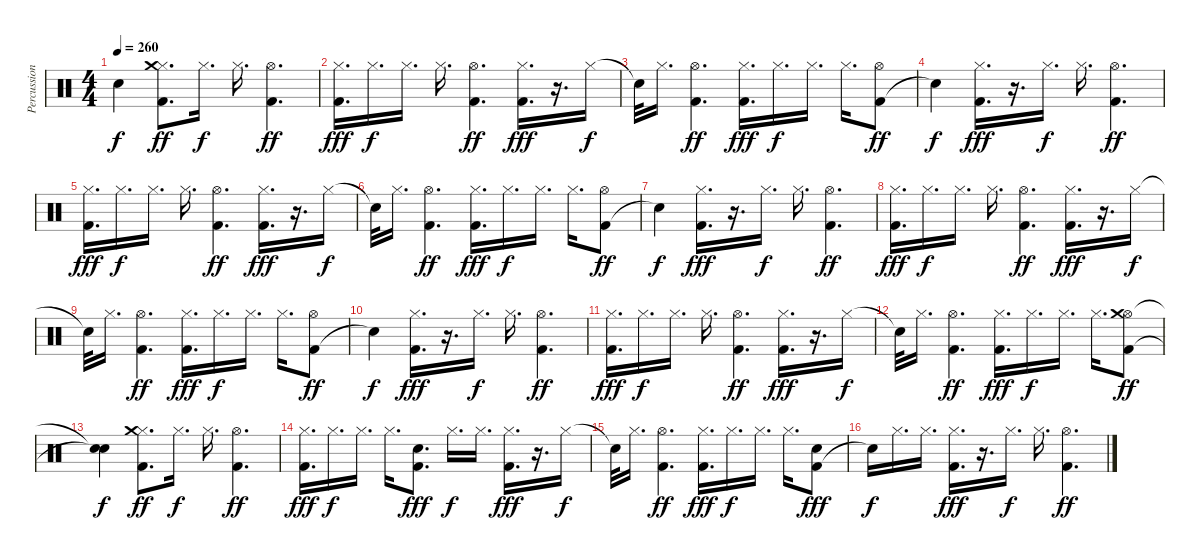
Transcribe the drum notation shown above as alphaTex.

\track ("Percussion" "Percussion") {instrument percussion}
\staff {score}
\articulation defaults
\ts (4 4)
\tempo 260
\clef neutral
\ks c "Snare (hit)"{t}.4{dy f}
("Kick (hit) 2" "Hi-Hat (closed)" "Crash medium (hit)").8{d dy ff} "Hi-Hat (closed)".16{d dy f} "Hi-Hat (closed)".16{d} ("Kick (hit) 2" "Hi-Hat (open)").4{d dy ff} |
("Kick (hit) 2" "Hi-Hat (closed)").16{d dy fff} "Hi-Hat (closed)".16{d dy f} "Hi-Hat (closed)".16{d} "Hi-Hat (closed)".16{d} ("Kick (hit) 2" "Hi-Hat (open)").4{d dy ff} ("Kick (hit) 2" "Hi-Hat (closed)").16{d dy fff} r.16{d} "Hi-Hat (closed)".16{dy f} |
"Snare (hit)"{t}.32 "Hi-Hat (closed)".16{d} ("Kick (hit) 2" "Hi-Hat (open)").4{d dy ff} ("Kick (hit) 2" "Hi-Hat (closed)").16{d dy fff} "Hi-Hat (closed)".16{d dy f} "Hi-Hat (closed)".16{d} "Hi-Hat (closed)".16{d} ("Kick (hit) 2" "Hi-Hat (open)").8{dy ff} |
"Snare (hit)"{t}.4{dy f} ("Kick (hit) 2" "Hi-Hat (closed)").16{d dy fff} r.16{d} "Hi-Hat (closed)".16{d dy f} "Hi-Hat (closed)".16{d} ("Kick (hit) 2" "Hi-Hat (open)").4{d dy ff} |
("Kick (hit) 2" "Hi-Hat (closed)").16{d dy fff} "Hi-Hat (closed)".16{d dy f} "Hi-Hat (closed)".16{d} "Hi-Hat (closed)".16{d} ("Kick (hit) 2" "Hi-Hat (open)").4{d dy ff} ("Kick (hit) 2" "Hi-Hat (closed)").16{d dy fff} r.16{d} "Hi-Hat (closed)".16{dy f} |
"Snare (hit)"{t}.32 "Hi-Hat (closed)".16{d} ("Kick (hit) 2" "Hi-Hat (open)").4{d dy ff} ("Kick (hit) 2" "Hi-Hat (closed)").16{d dy fff} "Hi-Hat (closed)".16{d dy f} "Hi-Hat (closed)".16{d} "Hi-Hat (closed)".16{d} ("Kick (hit) 2" "Hi-Hat (open)").8{dy ff} |
"Snare (hit)"{t}.4{dy f} ("Kick (hit) 2" "Hi-Hat (closed)").16{d dy fff} r.16{d} "Hi-Hat (closed)".16{d dy f} "Hi-Hat (closed)".16{d} ("Kick (hit) 2" "Hi-Hat (open)").4{d dy ff} |
("Kick (hit) 2" "Hi-Hat (closed)").16{d dy fff} "Hi-Hat (closed)".16{d dy f} "Hi-Hat (closed)".16{d} "Hi-Hat (closed)".16{d} ("Kick (hit) 2" "Hi-Hat (open)").4{d dy ff} ("Kick (hit) 2" "Hi-Hat (closed)").16{d dy fff} r.16{d} "Hi-Hat (closed)".16{dy f} |
"Snare (hit)"{t}.32 "Hi-Hat (closed)".16{d} ("Kick (hit) 2" "Hi-Hat (open)").4{d dy ff} ("Kick (hit) 2" "Hi-Hat (closed)").16{d dy fff} "Hi-Hat (closed)".16{d dy f} "Hi-Hat (closed)".16{d} "Hi-Hat (closed)".16{d} ("Kick (hit) 2" "Hi-Hat (open)").8{dy ff} |
"Snare (hit)"{t}.4{dy f} ("Kick (hit) 2" "Hi-Hat (closed)").16{d dy fff} r.16{d} "Hi-Hat (closed)".16{d dy f} "Hi-Hat (closed)".16{d} ("Kick (hit) 2" "Hi-Hat (open)").4{d dy ff} |
("Kick (hit) 2" "Hi-Hat (closed)").16{d dy fff} "Hi-Hat (closed)".16{d dy f} "Hi-Hat (closed)".16{d} "Hi-Hat (closed)".16{d} ("Kick (hit) 2" "Hi-Hat (open)").4{d dy ff} ("Kick (hit) 2" "Hi-Hat (closed)").16{d dy fff} r.16{d} "Hi-Hat (closed)".16{dy f} |
"Snare (hit)"{t}.32 "Hi-Hat (closed)".16{d} ("Kick (hit) 2" "Hi-Hat (open)").4{d dy ff} ("Kick (hit) 2" "Hi-Hat (closed)").16{d dy fff} "Hi-Hat (closed)".16{d dy f} "Hi-Hat (closed)".16{d} "Hi-Hat (closed)".16{d} ("Kick (hit) 2" "Hi-Hat (open)" "Crash medium (hit)").8{dy ff} |
("Snare (hit)"{t} "Snare (hit)"{t}).4{dy f} ("Kick (hit) 2" "Hi-Hat (closed)" "Crash medium (hit)").8{d dy ff} "Hi-Hat (closed)".16{d dy f} "Hi-Hat (closed)".16{d} ("Kick (hit) 2" "Hi-Hat (open)").4{d dy ff} |
("Kick (hit) 2" "Hi-Hat (closed)").16{d dy fff} "Hi-Hat (closed)".16{d dy f} "Hi-Hat (closed)".16{d} "Hi-Hat (closed)".16{d} ("Kick (hit) 2" "Electric Snare (hit)").8{d dy fff} "Hi-Hat (closed)".16{d dy f} "Hi-Hat (closed)".16{d} ("Kick (hit) 2" "Hi-Hat (closed)").16{d dy fff} r.16{d} "Hi-Hat (closed)".16{dy f} |
"Snare (hit)"{t}.32 "Hi-Hat (closed)".16{d} ("Kick (hit) 2" "Hi-Hat (open)").4{d dy ff} ("Kick (hit) 2" "Hi-Hat (closed)").16{d dy fff} "Hi-Hat (closed)".16{d dy f} "Hi-Hat (closed)".16{d} "Hi-Hat (closed)".16{d} ("Kick (hit) 2" "Electric Snare (hit)").8{dy fff} |
"Snare (hit)"{t}.16{dy f} "Hi-Hat (closed)".16{d} "Hi-Hat (closed)".16{d} ("Kick (hit) 2" "Hi-Hat (closed)").16{d dy fff} r.16{d} "Hi-Hat (closed)".16{d dy f} "Hi-Hat (closed)".16{d} ("Kick (hit) 2" "Hi-Hat (open)").4{d dy ff}
